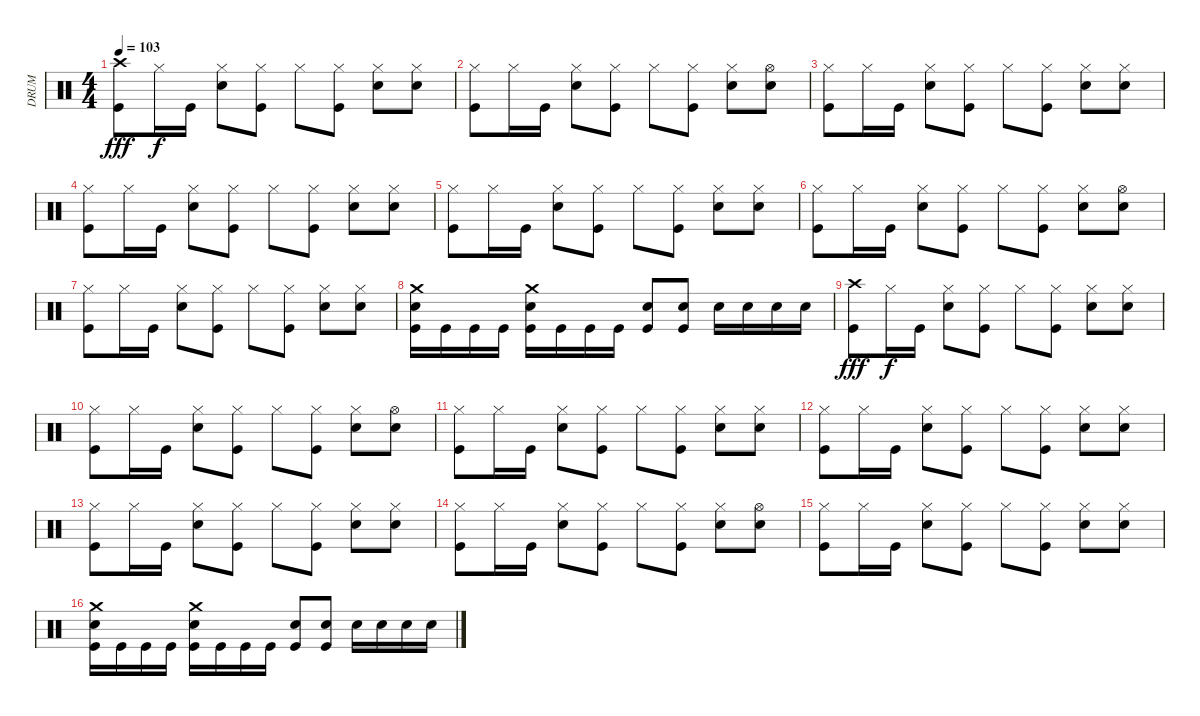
\track ("DRUM" "DRUM") {instrument percussion}
\staff {score}
\articulation defaults
\ts (4 4)
\tempo 103
\clef neutral
\ks c
("Crash high (hit)" "Kick (hit)").8{dy fff} "Hi-Hat (closed)".16{dy f} "Kick (hit)".16 ("Snare (hit) 2" "Hi-Hat (closed)").8 ("Hi-Hat (closed)" "Kick (hit)").8 "Hi-Hat (closed)".8 ("Hi-Hat (closed)" "Kick (hit)").8 ("Snare (hit) 2" "Hi-Hat (closed)").8 ("Snare (hit) 2" "Hi-Hat (closed)").8 |
("Hi-Hat (closed)" "Kick (hit)").8 "Hi-Hat (closed)".16 "Kick (hit)".16 ("Snare (hit) 2" "Hi-Hat (closed)").8 ("Hi-Hat (closed)" "Kick (hit)").8 "Hi-Hat (closed)".8 ("Hi-Hat (closed)" "Kick (hit)").8 ("Snare (hit) 2" "Hi-Hat (closed)").8 ("Snare (hit) 2" "Hi-Hat (open)").8 |
("Hi-Hat (closed)" "Kick (hit)").8 "Hi-Hat (closed)".16 "Kick (hit)".16 ("Snare (hit) 2" "Hi-Hat (closed)").8 ("Hi-Hat (closed)" "Kick (hit)").8 "Hi-Hat (closed)".8 ("Hi-Hat (closed)" "Kick (hit)").8 ("Snare (hit) 2" "Hi-Hat (closed)").8 ("Snare (hit) 2" "Hi-Hat (closed)").8 |
("Hi-Hat (closed)" "Kick (hit)").8 "Hi-Hat (closed)".16 "Kick (hit)".16 ("Snare (hit) 2" "Hi-Hat (closed)").8 ("Hi-Hat (closed)" "Kick (hit)").8 "Hi-Hat (closed)".8 ("Hi-Hat (closed)" "Kick (hit)").8 ("Snare (hit) 2" "Hi-Hat (closed)").8 ("Snare (hit) 2" "Hi-Hat (closed)").8 |
("Hi-Hat (closed)" "Kick (hit)").8 "Hi-Hat (closed)".16 "Kick (hit)".16 ("Snare (hit) 2" "Hi-Hat (closed)").8 ("Hi-Hat (closed)" "Kick (hit)").8 "Hi-Hat (closed)".8 ("Hi-Hat (closed)" "Kick (hit)").8 ("Snare (hit) 2" "Hi-Hat (closed)").8 ("Snare (hit) 2" "Hi-Hat (closed)").8 |
("Hi-Hat (closed)" "Kick (hit)").8 "Hi-Hat (closed)".16 "Kick (hit)".16 ("Snare (hit) 2" "Hi-Hat (closed)").8 ("Hi-Hat (closed)" "Kick (hit)").8 "Hi-Hat (closed)".8 ("Hi-Hat (closed)" "Kick (hit)").8 ("Snare (hit) 2" "Hi-Hat (closed)").8 ("Snare (hit) 2" "Hi-Hat (open)").8 |
("Hi-Hat (closed)" "Kick (hit)").8 "Hi-Hat (closed)".16 "Kick (hit)".16 ("Snare (hit) 2" "Hi-Hat (closed)").8 ("Hi-Hat (closed)" "Kick (hit)").8 "Hi-Hat (closed)".8 ("Hi-Hat (closed)" "Kick (hit)").8 ("Snare (hit) 2" "Hi-Hat (closed)").8 ("Snare (hit) 2" "Hi-Hat (closed)").8 |
("Crash medium (hit)" "Snare (hit) 2" "Kick (hit)").16 "Kick (hit)".16 "Kick (hit)".16 "Kick (hit)".16 ("Crash medium (hit)" "Snare (hit) 2" "Kick (hit)").16 "Kick (hit)".16 "Kick (hit)".16 "Kick (hit)".16 ("Snare (hit) 2" "Kick (hit)").8 ("Snare (hit) 2" "Kick (hit)").8 "Snare (hit) 2".16 "Snare (hit) 2".16 "Snare (hit) 2".16 "Snare (hit) 2".16 |
("Crash high (hit)" "Kick (hit)").8{dy fff} "Hi-Hat (closed)".16{dy f} "Kick (hit)".16 ("Snare (hit) 2" "Hi-Hat (closed)").8 ("Hi-Hat (closed)" "Kick (hit)").8 "Hi-Hat (closed)".8 ("Hi-Hat (closed)" "Kick (hit)").8 ("Snare (hit) 2" "Hi-Hat (closed)").8 ("Snare (hit) 2" "Hi-Hat (closed)").8 |
("Hi-Hat (closed)" "Kick (hit)").8 "Hi-Hat (closed)".16 "Kick (hit)".16 ("Snare (hit) 2" "Hi-Hat (closed)").8 ("Hi-Hat (closed)" "Kick (hit)").8 "Hi-Hat (closed)".8 ("Hi-Hat (closed)" "Kick (hit)").8 ("Snare (hit) 2" "Hi-Hat (closed)").8 ("Snare (hit) 2" "Hi-Hat (open)").8 |
("Hi-Hat (closed)" "Kick (hit)").8 "Hi-Hat (closed)".16 "Kick (hit)".16 ("Snare (hit) 2" "Hi-Hat (closed)").8 ("Hi-Hat (closed)" "Kick (hit)").8 "Hi-Hat (closed)".8 ("Hi-Hat (closed)" "Kick (hit)").8 ("Snare (hit) 2" "Hi-Hat (closed)").8 ("Snare (hit) 2" "Hi-Hat (closed)").8 |
("Hi-Hat (closed)" "Kick (hit)").8 "Hi-Hat (closed)".16 "Kick (hit)".16 ("Snare (hit) 2" "Hi-Hat (closed)").8 ("Hi-Hat (closed)" "Kick (hit)").8 "Hi-Hat (closed)".8 ("Hi-Hat (closed)" "Kick (hit)").8 ("Snare (hit) 2" "Hi-Hat (closed)").8 ("Snare (hit) 2" "Hi-Hat (closed)").8 |
("Hi-Hat (closed)" "Kick (hit)").8 "Hi-Hat (closed)".16 "Kick (hit)".16 ("Snare (hit) 2" "Hi-Hat (closed)").8 ("Hi-Hat (closed)" "Kick (hit)").8 "Hi-Hat (closed)".8 ("Hi-Hat (closed)" "Kick (hit)").8 ("Snare (hit) 2" "Hi-Hat (closed)").8 ("Snare (hit) 2" "Hi-Hat (closed)").8 |
("Hi-Hat (closed)" "Kick (hit)").8 "Hi-Hat (closed)".16 "Kick (hit)".16 ("Snare (hit) 2" "Hi-Hat (closed)").8 ("Hi-Hat (closed)" "Kick (hit)").8 "Hi-Hat (closed)".8 ("Hi-Hat (closed)" "Kick (hit)").8 ("Snare (hit) 2" "Hi-Hat (closed)").8 ("Snare (hit) 2" "Hi-Hat (open)").8 |
("Hi-Hat (closed)" "Kick (hit)").8 "Hi-Hat (closed)".16 "Kick (hit)".16 ("Snare (hit) 2" "Hi-Hat (closed)").8 ("Hi-Hat (closed)" "Kick (hit)").8 "Hi-Hat (closed)".8 ("Hi-Hat (closed)" "Kick (hit)").8 ("Snare (hit) 2" "Hi-Hat (closed)").8 ("Snare (hit) 2" "Hi-Hat (closed)").8 |
("Crash medium (hit)" "Snare (hit) 2" "Kick (hit)").16 "Kick (hit)".16 "Kick (hit)".16 "Kick (hit)".16 ("Crash medium (hit)" "Snare (hit) 2" "Kick (hit)").16 "Kick (hit)".16 "Kick (hit)".16 "Kick (hit)".16 ("Snare (hit) 2" "Kick (hit)").8 ("Snare (hit) 2" "Kick (hit)").8 "Snare (hit) 2".16 "Snare (hit) 2".16 "Snare (hit) 2".16 "Snare (hit) 2".16
